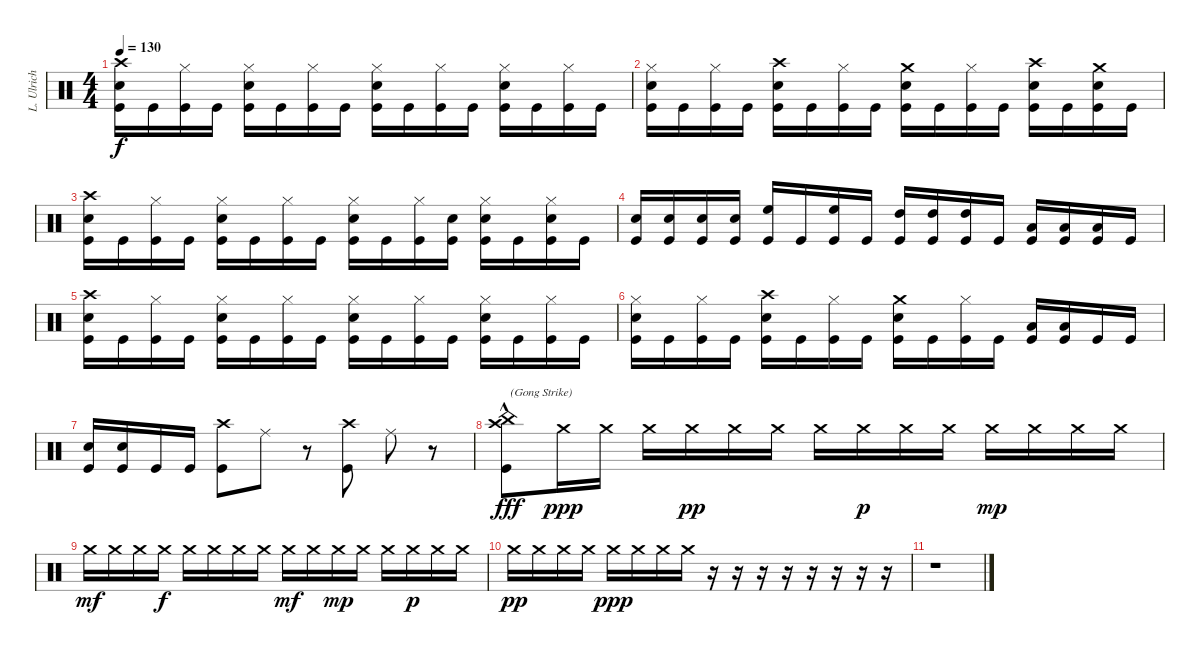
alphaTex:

\track ("L. Ulrich" "L. Ulrich") {instrument percussion}
\staff {score}
\articulation defaults
\ts (4 4)
\tempo 130
\clef neutral
\ks c
("Crash high (hit)" "Snare (hit) 2" "Kick (hit)").16{dy f} "Kick (hit)".16 ("Hi-Hat (closed)" "Kick (hit)").16 "Kick (hit)".16 ("Hi-Hat (closed)" "Snare (hit) 2" "Kick (hit)").16 "Kick (hit)".16 ("Hi-Hat (closed)" "Kick (hit)").16 "Kick (hit)".16 ("Hi-Hat (closed)" "Snare (hit) 2" "Kick (hit)").16 "Kick (hit)".16 ("Hi-Hat (closed)" "Kick (hit)").16 "Kick (hit)".16 ("Hi-Hat (closed)" "Snare (hit) 2" "Kick (hit)").16 "Kick (hit)".16 ("Hi-Hat (closed)" "Kick (hit)").16 "Kick (hit)".16 |
("Hi-Hat (closed)" "Snare (hit) 2" "Kick (hit)").16 "Kick (hit)".16 ("Hi-Hat (closed)" "Kick (hit)").16 "Kick (hit)".16 ("Crash high (hit)" "Snare (hit) 2" "Kick (hit)").16 "Kick (hit)".16 ("Hi-Hat (closed)" "Kick (hit)").16 "Kick (hit)".16 ("Crash medium (hit)" "Snare (hit) 2" "Kick (hit)").16 "Kick (hit)".16 ("Hi-Hat (closed)" "Kick (hit)").16 "Kick (hit)".16 ("Crash high (hit)" "Snare (hit) 2" "Kick (hit)").16 "Kick (hit)".16 ("Crash medium (hit)" "Snare (hit) 2" "Kick (hit)").16 "Kick (hit)".16 |
("Crash high (hit)" "Snare (hit) 2" "Kick (hit)").16 "Kick (hit)".16 ("Hi-Hat (closed)" "Kick (hit)").16 "Kick (hit)".16 ("Hi-Hat (closed)" "Snare (hit) 2" "Kick (hit)").16 "Kick (hit)".16 ("Hi-Hat (closed)" "Kick (hit)").16 "Kick (hit)".16 ("Hi-Hat (closed)" "Snare (hit) 2" "Kick (hit)").16 "Kick (hit)".16 ("Hi-Hat (closed)" "Kick (hit)").16 ("Snare (hit) 2" "Kick (hit)").16 ("Hi-Hat (closed)" "Snare (hit) 2" "Kick (hit)").16 "Kick (hit)".16 ("Hi-Hat (closed)" "Snare (hit) 2" "Kick (hit)").16 "Kick (hit)".16 |
("Snare (hit) 2" "Kick (hit)").16 ("Snare (hit) 2" "Kick (hit)").16 ("Snare (hit) 2" "Kick (hit)").16 ("Snare (hit) 2" "Kick (hit)").16 ("High Floor Tom (hit)" "Kick (hit)").16 "Kick (hit)".16 ("High Floor Tom (hit)" "Kick (hit)").16 "Kick (hit)".16 ("High Tom (hit)" "Kick (hit)").16 ("High Tom (hit)" "Kick (hit)").16 ("High Tom (hit)" "Kick (hit)").16 "Kick (hit)".16 ("Low Tom (hit)" "Kick (hit)").16 ("Low Tom (hit)" "Kick (hit)").16 ("Low Tom (hit)" "Kick (hit)").16 "Kick (hit)".16 |
("Crash high (hit)" "Snare (hit) 2" "Kick (hit)").16 "Kick (hit)".16 ("Hi-Hat (closed)" "Kick (hit)").16 "Kick (hit)".16 ("Hi-Hat (closed)" "Snare (hit) 2" "Kick (hit)").16 "Kick (hit)".16 ("Hi-Hat (closed)" "Kick (hit)").16 "Kick (hit)".16 ("Hi-Hat (closed)" "Snare (hit) 2" "Kick (hit)").16 "Kick (hit)".16 ("Hi-Hat (closed)" "Kick (hit)").16 "Kick (hit)".16 ("Hi-Hat (closed)" "Snare (hit) 2" "Kick (hit)").16 "Kick (hit)".16 ("Hi-Hat (closed)" "Kick (hit)").16 "Kick (hit)".16 |
("Hi-Hat (closed)" "Snare (hit) 2" "Kick (hit)").16 "Kick (hit)".16 ("Hi-Hat (closed)" "Kick (hit)").16 "Kick (hit)".16 ("Crash high (hit)" "Snare (hit) 2" "Kick (hit)").16 "Kick (hit)".16 ("Hi-Hat (closed)" "Kick (hit)").16 "Kick (hit)".16 ("Crash medium (hit)" "Snare (hit) 2" "Kick (hit)").16 "Kick (hit)".16 ("Hi-Hat (closed)" "Kick (hit)").16 "Kick (hit)".16 ("Low Tom (hit)" "Kick (hit)").16 ("Low Tom (hit)" "Kick (hit)").16 "Kick (hit)".16 "Kick (hit)".16 |
("Snare (hit) 2" "Kick (hit)").16 ("Snare (hit) 2" "Kick (hit)").16 "Kick (hit)".16 "Kick (hit)".16 ("Crash high (hit)" "Kick (hit)").8 "Ride (middle)".8 r.8 ("Crash high (hit)" "Kick (hit)").8 "Ride (middle)".8 r.8 |
("China (hit)"{hac} "Crash high (hit)" "Kick (hit)").8{txt "(Gong Strike)" dy fff} "Crash medium (hit)".16{dy ppp} "Crash medium (hit)".16 "Crash medium (hit)".16 "Crash medium (hit)".16{dy pp} "Crash medium (hit)".16 "Crash medium (hit)".16 "Crash medium (hit)".16 "Crash medium (hit)".16{dy p} "Crash medium (hit)".16 "Crash medium (hit)".16 "Crash medium (hit)".16{dy mp} "Crash medium (hit)".16 "Crash medium (hit)".16 "Crash medium (hit)".16 |
"Crash medium (hit)".16{dy mf} "Crash medium (hit)".16 "Crash medium (hit)".16 "Crash medium (hit)".16{dy f} "Crash medium (hit)".16 "Crash medium (hit)".16 "Crash medium (hit)".16 "Crash medium (hit)".16 "Crash medium (hit)".16{dy mf} "Crash medium (hit)".16 "Crash medium (hit)".16{dy mp} "Crash medium (hit)".16 "Crash medium (hit)".16 "Crash medium (hit)".16{dy p} "Crash medium (hit)".16 "Crash medium (hit)".16 |
"Crash medium (hit)".16{dy pp} "Crash medium (hit)".16 "Crash medium (hit)".16 "Crash medium (hit)".16 "Crash medium (hit)".16{dy ppp} "Crash medium (hit)".16 "Crash medium (hit)".16 "Crash medium (hit)".16 r.16 r.16 r.16 r.16 r.16 r.16 r.16 r.16 |
r.1
